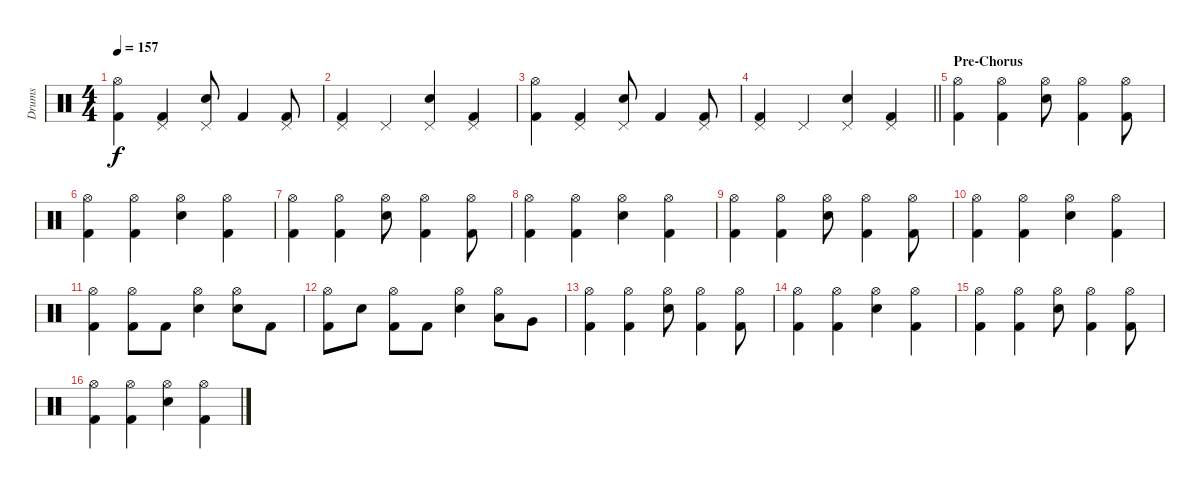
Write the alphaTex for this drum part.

\track ("Drums" "Drums") {instrument percussion}
\staff {score}
\articulation defaults
\ts (4 4)
\tempo 157
\clef neutral
\ks c
("Hi-Hat (open)" "Kick (hit) 2").4{dy f} ("Pedal Hi-Hat (hit)" "Kick (hit) 2").4 ("Pedal Hi-Hat (hit)" "Electric Snare (hit)").8 "Kick (hit) 2".4 ("Pedal Hi-Hat (hit)" "Kick (hit) 2").8 |
("Pedal Hi-Hat (hit)" "Kick (hit) 2").4 "Pedal Hi-Hat (hit)".4 ("Pedal Hi-Hat (hit)" "Electric Snare (hit)").4 ("Pedal Hi-Hat (hit)" "Kick (hit) 2").4 |
("Hi-Hat (open)" "Kick (hit) 2").4 ("Pedal Hi-Hat (hit)" "Kick (hit) 2").4 ("Pedal Hi-Hat (hit)" "Electric Snare (hit)").8 "Kick (hit) 2".4 ("Pedal Hi-Hat (hit)" "Kick (hit) 2").8 |
\barLineRight lightlight
("Pedal Hi-Hat (hit)" "Kick (hit) 2").4 "Pedal Hi-Hat (hit)".4 ("Pedal Hi-Hat (hit)" "Electric Snare (hit)").4 ("Pedal Hi-Hat (hit)" "Kick (hit) 2").4 |
\section ("" "Pre-Chorus")
("Hi-Hat (open)" "Kick (hit) 2").4 ("Hi-Hat (open)" "Kick (hit) 2").4 ("Hi-Hat (open)" "Electric Snare (hit)").8 ("Hi-Hat (open)" "Kick (hit) 2").4 ("Hi-Hat (open)" "Kick (hit) 2").8 |
("Hi-Hat (open)" "Kick (hit) 2").4 ("Hi-Hat (open)" "Kick (hit) 2").4 ("Hi-Hat (open)" "Electric Snare (hit)").4 ("Hi-Hat (open)" "Kick (hit) 2").4 |
("Hi-Hat (open)" "Kick (hit) 2").4 ("Hi-Hat (open)" "Kick (hit) 2").4 ("Hi-Hat (open)" "Electric Snare (hit)").8 ("Hi-Hat (open)" "Kick (hit) 2").4 ("Hi-Hat (open)" "Kick (hit) 2").8 |
("Hi-Hat (open)" "Kick (hit) 2").4 ("Hi-Hat (open)" "Kick (hit) 2").4 ("Hi-Hat (open)" "Electric Snare (hit)").4 ("Hi-Hat (open)" "Kick (hit) 2").4 |
("Hi-Hat (open)" "Kick (hit) 2").4 ("Hi-Hat (open)" "Kick (hit) 2").4 ("Hi-Hat (open)" "Electric Snare (hit)").8 ("Hi-Hat (open)" "Kick (hit) 2").4 ("Hi-Hat (open)" "Kick (hit) 2").8 |
("Hi-Hat (open)" "Kick (hit) 2").4 ("Hi-Hat (open)" "Kick (hit) 2").4 ("Hi-Hat (open)" "Electric Snare (hit)").4 ("Hi-Hat (open)" "Kick (hit) 2").4 |
("Hi-Hat (open)" "Kick (hit) 2").4 ("Hi-Hat (open)" "Kick (hit) 2").8 "Kick (hit) 2".8 ("Hi-Hat (open)" "Electric Snare (hit)").4 ("Hi-Hat (open)" "Electric Snare (hit)").8 "Kick (hit) 2".8 |
("Hi-Hat (open)" "Kick (hit) 2").8 "Electric Snare (hit)".8 ("Hi-Hat (open)" "Kick (hit) 2").8 "Kick (hit) 2".8 ("Hi-Hat (open)" "Electric Snare (hit)").4 ("Hi-Hat (open)" "Low Tom (hit)").8 "Very Low Tom (hit)".8 |
("Hi-Hat (open)" "Kick (hit) 2").4 ("Hi-Hat (open)" "Kick (hit) 2").4 ("Hi-Hat (open)" "Electric Snare (hit)").8 ("Hi-Hat (open)" "Kick (hit) 2").4 ("Hi-Hat (open)" "Kick (hit) 2").8 |
("Hi-Hat (open)" "Kick (hit) 2").4 ("Hi-Hat (open)" "Kick (hit) 2").4 ("Hi-Hat (open)" "Electric Snare (hit)").4 ("Hi-Hat (open)" "Kick (hit) 2").4 |
("Hi-Hat (open)" "Kick (hit) 2").4 ("Hi-Hat (open)" "Kick (hit) 2").4 ("Hi-Hat (open)" "Electric Snare (hit)").8 ("Hi-Hat (open)" "Kick (hit) 2").4 ("Hi-Hat (open)" "Kick (hit) 2").8 |
("Hi-Hat (open)" "Kick (hit) 2").4 ("Hi-Hat (open)" "Kick (hit) 2").4 ("Hi-Hat (open)" "Electric Snare (hit)").4 ("Hi-Hat (open)" "Kick (hit) 2").4
